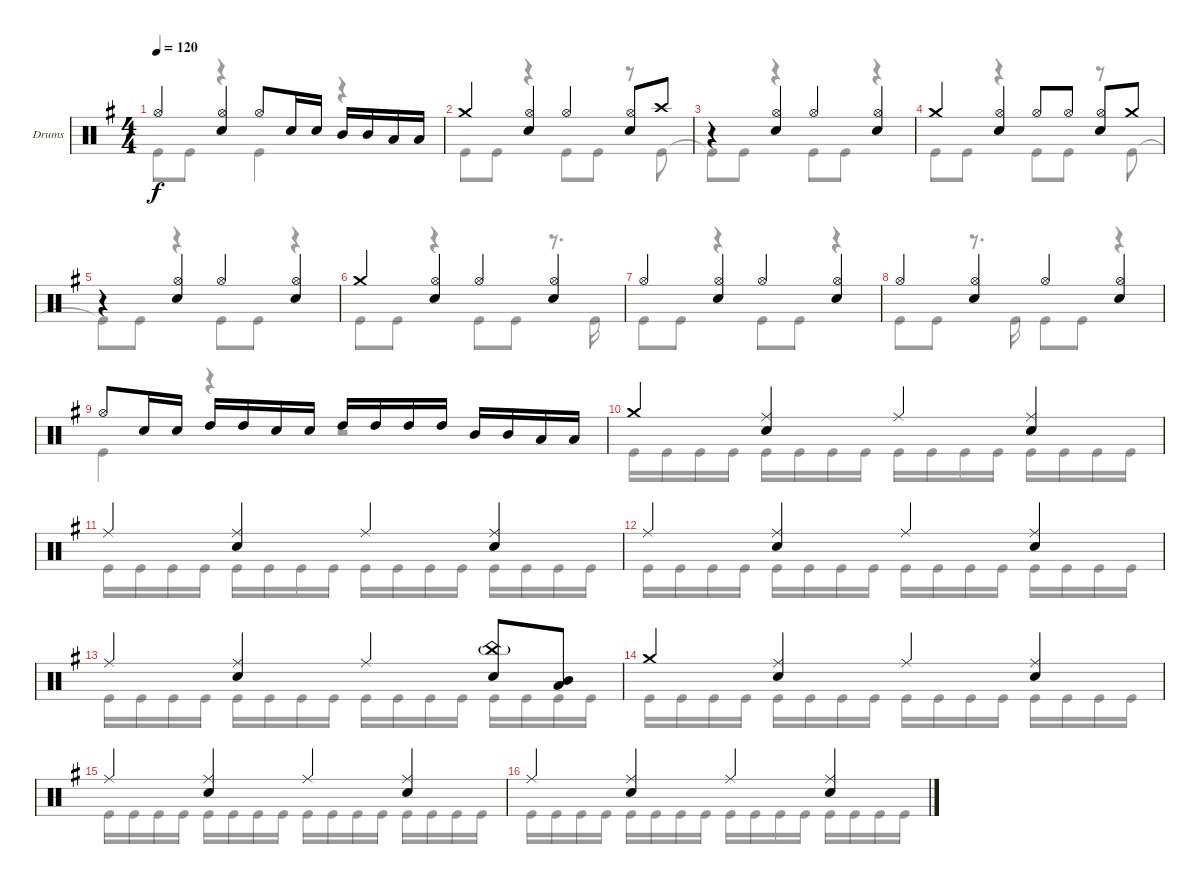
\bracketExtendMode groupsimilarinstruments
\firstSystemTrackNameOrientation horizontal
\otherSystemsTrackNameOrientation horizontal
\track ("Drumkit" "Drums") {mute instrument percussion}
\staff {score}
\articulation defaults
\voice
\ts (4 4)
\tempo 120
\clef neutral
\ks eminor "Hi-Hat (open)".4{dy f}
("Hi-Hat (open)" "Snare (hit) 2").4 "Hi-Hat (open)".8 "Snare (hit) 2".16 "Snare (hit) 2".16 "Mid Tom (hit)".16 "Mid Tom (hit)".16 "Low Tom (hit)".16 "Low Tom (hit)".16 |
"Crash medium (hit)".4 ("Hi-Hat (open)" "Snare (hit) 2").4 "Hi-Hat (open)".4 ("Hi-Hat (open)" "Snare (hit) 2").8 "Crash high (hit)".8 |
r.4 ("Hi-Hat (open)" "Snare (hit) 2").4 "Hi-Hat (open)".4 ("Hi-Hat (open)" "Snare (hit) 2").4 |
"Crash medium (hit)".4 ("Hi-Hat (open)" "Snare (hit) 2").4 "Hi-Hat (open)".8 "Hi-Hat (open)".8 ("Hi-Hat (open)" "Snare (hit) 2").8 "Crash medium (hit)".8 |
r.4 ("Hi-Hat (open)" "Snare (hit) 2").4 "Hi-Hat (open)".4 ("Hi-Hat (open)" "Snare (hit) 2").4 |
"Crash medium (hit)".4 ("Hi-Hat (open)" "Snare (hit) 2").4 "Hi-Hat (open)".4 ("Hi-Hat (open)" "Snare (hit) 2").4 |
"Hi-Hat (open)".4 ("Hi-Hat (open)" "Snare (hit) 2").4 "Hi-Hat (open)".4 ("Hi-Hat (open)" "Snare (hit) 2").4 |
"Hi-Hat (open)".4 ("Hi-Hat (open)" "Snare (hit) 2").4 "Hi-Hat (open)".4 ("Hi-Hat (open)" "Snare (hit) 2").4 |
"Hi-Hat (open)".8 "Snare (hit) 2".16 "Snare (hit) 2".16 "High Tom (hit)".16 "High Tom (hit)".16 "Snare (hit) 2".16 "Snare (hit) 2".16 "High Tom (hit)".16 "High Tom (hit)".16 "High Tom (hit)".16 "High Tom (hit)".16 "Mid Tom (hit)".16 "Mid Tom (hit)".16 "Low Tom (hit)".16 "Low Tom (hit)".16 |
"Crash medium (hit)".4 ("Ride (middle)" "Snare (hit) 2").4 "Ride (middle)".4 ("Ride (middle)" "Snare (hit) 2").4 |
"Ride (middle)".4 ("Ride (middle)" "Snare (hit) 2").4 "Ride (middle)".4 ("Ride (middle)" "Snare (hit) 2").4 |
"Ride (middle)".4 ("Ride (middle)" "Snare (hit) 2").4 "Ride (middle)".4 ("Ride (middle)" "Snare (hit) 2").4 |
"Ride (middle)".4 ("Ride (middle)" "Snare (hit) 2").4 "Ride (middle)".4 ("China (hit)"{g} "Snare (hit) 2").8 ("Mid Tom (hit)" "Low Tom (hit)").8 |
"Crash medium (hit)".4 ("Ride (middle)" "Snare (hit) 2").4 "Ride (middle)".4 ("Ride (middle)" "Snare (hit) 2").4 |
"Ride (middle)".4 ("Ride (middle)" "Snare (hit) 2").4 "Ride (middle)".4 ("Ride (middle)" "Snare (hit) 2").4 |
"Ride (middle)".4 ("Ride (middle)" "Snare (hit) 2").4 "Ride (middle)".4 ("Ride (middle)" "Snare (hit) 2").4
\voice
\clef neutral
\ottava regular
\simile none
\ks eminor "Kick (hit)".8{dy f} "Kick (hit)".8
r.4 "Kick (hit)".4 r.4 |
"Kick (hit)".8 "Kick (hit)".8 r.4 "Kick (hit)".8 "Kick (hit)".8 r.8 "Kick (hit)".8 |
"Kick (hit)"{t}.8 "Kick (hit)".8 r.4 "Kick (hit)".8 "Kick (hit)".8 r.4 |
"Kick (hit)".8 "Kick (hit)".8 r.4 "Kick (hit)".8 "Kick (hit)".8 r.8 "Kick (hit)".8 |
"Kick (hit)"{t}.8 "Kick (hit)".8 r.4 "Kick (hit)".8 "Kick (hit)".8 r.4 |
"Kick (hit)".8 "Kick (hit)".8 r.4 "Kick (hit)".8 "Kick (hit)".8 r.8{d} "Kick (hit)".16 |
"Kick (hit)".8 "Kick (hit)".8 r.4 "Kick (hit)".8 "Kick (hit)".8 r.4 |
"Kick (hit)".8 "Kick (hit)".8 r.8{d} "Kick (hit)".16 "Kick (hit)".8 "Kick (hit)".8 r.4 |
"Kick (hit)".4 r.4 r.2 |
"Kick (hit)".16 "Kick (hit)".16 "Kick (hit)".16 "Kick (hit)".16 "Kick (hit)".16 "Kick (hit)".16 "Kick (hit)".16 "Kick (hit)".16 "Kick (hit)".16 "Kick (hit)".16 "Kick (hit)".16 "Kick (hit)".16 "Kick (hit)".16 "Kick (hit)".16 "Kick (hit)".16 "Kick (hit)".16 |
"Kick (hit)".16 "Kick (hit)".16 "Kick (hit)".16 "Kick (hit)".16 "Kick (hit)".16 "Kick (hit)".16 "Kick (hit)".16 "Kick (hit)".16 "Kick (hit)".16 "Kick (hit)".16 "Kick (hit)".16 "Kick (hit)".16 "Kick (hit)".16 "Kick (hit)".16 "Kick (hit)".16 "Kick (hit)".16 |
"Kick (hit)".16 "Kick (hit)".16 "Kick (hit)".16 "Kick (hit)".16 "Kick (hit)".16 "Kick (hit)".16 "Kick (hit)".16 "Kick (hit)".16 "Kick (hit)".16 "Kick (hit)".16 "Kick (hit)".16 "Kick (hit)".16 "Kick (hit)".16 "Kick (hit)".16 "Kick (hit)".16 "Kick (hit)".16 |
"Kick (hit)".16 "Kick (hit)".16 "Kick (hit)".16 "Kick (hit)".16 "Kick (hit)".16 "Kick (hit)".16 "Kick (hit)".16 "Kick (hit)".16 "Kick (hit)".16 "Kick (hit)".16 "Kick (hit)".16 "Kick (hit)".16 "Kick (hit)".16 "Kick (hit)".16 "Kick (hit)".16 "Kick (hit)".16 |
"Kick (hit)".16 "Kick (hit)".16 "Kick (hit)".16 "Kick (hit)".16 "Kick (hit)".16 "Kick (hit)".16 "Kick (hit)".16 "Kick (hit)".16 "Kick (hit)".16 "Kick (hit)".16 "Kick (hit)".16 "Kick (hit)".16 "Kick (hit)".16 "Kick (hit)".16 "Kick (hit)".16 "Kick (hit)".16 |
"Kick (hit)".16 "Kick (hit)".16 "Kick (hit)".16 "Kick (hit)".16 "Kick (hit)".16 "Kick (hit)".16 "Kick (hit)".16 "Kick (hit)".16 "Kick (hit)".16 "Kick (hit)".16 "Kick (hit)".16 "Kick (hit)".16 "Kick (hit)".16 "Kick (hit)".16 "Kick (hit)".16 "Kick (hit)".16 |
"Kick (hit)".16 "Kick (hit)".16 "Kick (hit)".16 "Kick (hit)".16 "Kick (hit)".16 "Kick (hit)".16 "Kick (hit)".16 "Kick (hit)".16 "Kick (hit)".16 "Kick (hit)".16 "Kick (hit)".16 "Kick (hit)".16 "Kick (hit)".16 "Kick (hit)".16 "Kick (hit)".16 "Kick (hit)".16
